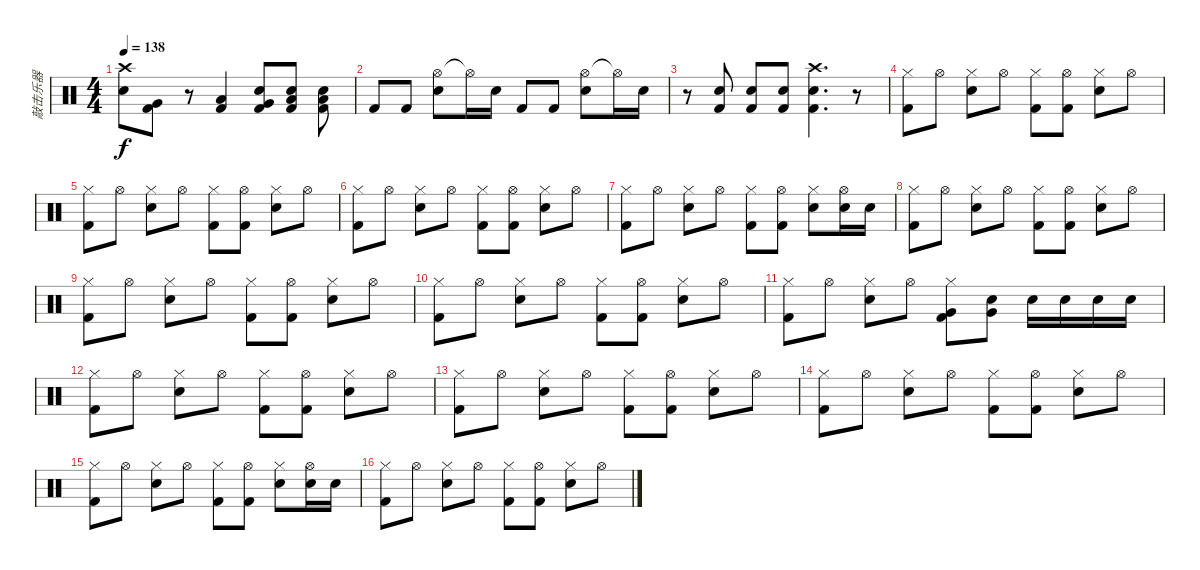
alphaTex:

\track ("敲击乐器" "敲击乐器") {instrument percussion}
\staff {score}
\articulation defaults
\ts (4 4)
\tempo 138
\clef neutral
\ks c
("Crash high (hit)" "Electric Snare (hit)").8{dy f} ("Very Low Tom (hit)" "Kick (hit) 2").8 r.8 ("Low Floor Tom (hit)" "Kick (hit) 2").4{beam split} ("Electric Snare (hit)" "Very Low Tom (hit)" "Kick (hit) 2").8{beam merge} ("Electric Snare (hit)" "Low Floor Tom (hit)" "Kick (hit) 2").8{beam split} ("Electric Snare (hit)" "Low Floor Tom (hit)" "Kick (hit) 2").8 |
"Kick (hit) 2".8 "Kick (hit) 2".8 ("Hi-Hat (open)" "Electric Snare (hit)").8 "Hi-Hat (open)"{t}.16 "Electric Snare (hit)".16 "Kick (hit) 2".8 "Kick (hit) 2".8 ("Hi-Hat (open)" "Electric Snare (hit)").8 "Hi-Hat (open)"{t}.16 "Electric Snare (hit)".16 |
r.8 ("Electric Snare (hit)" "Kick (hit) 2").8 ("Electric Snare (hit)" "Kick (hit) 2").8 ("Electric Snare (hit)" "Kick (hit) 2").8 ("Crash high (hit)" "Electric Snare (hit)" "Kick (hit) 2").4{d} r.8 |
("Hi-Hat (closed)" "Kick (hit) 2").8 "Hi-Hat (open)".8 ("Hi-Hat (closed)" "Electric Snare (hit)").8 "Hi-Hat (open)".8 ("Hi-Hat (closed)" "Kick (hit) 2").8 ("Hi-Hat (open)" "Kick (hit) 2").8 ("Hi-Hat (closed)" "Electric Snare (hit)").8 "Hi-Hat (open)".8 |
("Hi-Hat (closed)" "Kick (hit) 2").8 "Hi-Hat (open)".8 ("Hi-Hat (closed)" "Electric Snare (hit)").8 "Hi-Hat (open)".8 ("Hi-Hat (closed)" "Kick (hit) 2").8 ("Hi-Hat (open)" "Kick (hit) 2").8 ("Hi-Hat (closed)" "Electric Snare (hit)").8 "Hi-Hat (open)".8 |
("Hi-Hat (closed)" "Kick (hit) 2").8 "Hi-Hat (open)".8 ("Hi-Hat (closed)" "Electric Snare (hit)").8 "Hi-Hat (open)".8 ("Hi-Hat (closed)" "Kick (hit) 2").8 ("Hi-Hat (open)" "Kick (hit) 2").8 ("Hi-Hat (closed)" "Electric Snare (hit)").8 "Hi-Hat (open)".8 |
("Hi-Hat (closed)" "Kick (hit) 2").8 "Hi-Hat (open)".8 ("Hi-Hat (closed)" "Electric Snare (hit)").8 "Hi-Hat (open)".8 ("Hi-Hat (closed)" "Kick (hit) 2").8 ("Hi-Hat (open)" "Kick (hit) 2").8 ("Hi-Hat (closed)" "Electric Snare (hit)").8 ("Hi-Hat (open)" "Electric Snare (hit)").16 "Electric Snare (hit)".16 |
("Hi-Hat (closed)" "Kick (hit) 2").8 "Hi-Hat (open)".8 ("Hi-Hat (closed)" "Electric Snare (hit)").8 "Hi-Hat (open)".8 ("Hi-Hat (closed)" "Kick (hit) 2").8 ("Hi-Hat (open)" "Kick (hit) 2").8 ("Hi-Hat (closed)" "Electric Snare (hit)").8 "Hi-Hat (open)".8 |
("Hi-Hat (closed)" "Kick (hit) 2").8 "Hi-Hat (open)".8 ("Hi-Hat (closed)" "Electric Snare (hit)").8 "Hi-Hat (open)".8 ("Hi-Hat (closed)" "Kick (hit) 2").8 ("Hi-Hat (open)" "Kick (hit) 2").8 ("Hi-Hat (closed)" "Electric Snare (hit)").8 "Hi-Hat (open)".8 |
("Hi-Hat (closed)" "Kick (hit) 2").8 "Hi-Hat (open)".8 ("Hi-Hat (closed)" "Electric Snare (hit)").8 "Hi-Hat (open)".8 ("Hi-Hat (closed)" "Kick (hit) 2").8 ("Hi-Hat (open)" "Kick (hit) 2").8 ("Hi-Hat (closed)" "Electric Snare (hit)").8 "Hi-Hat (open)".8 |
("Hi-Hat (closed)" "Kick (hit) 2").8 "Hi-Hat (open)".8 ("Hi-Hat (closed)" "Electric Snare (hit)").8 "Hi-Hat (open)".8 ("Hi-Hat (closed)" "Very Low Tom (hit)" "Kick (hit) 2").8 ("Very Low Tom (hit)" "Electric Snare (hit)").8 "Electric Snare (hit)".16 "Electric Snare (hit)".16 "Electric Snare (hit)".16 "Electric Snare (hit)".16 |
("Hi-Hat (closed)" "Kick (hit) 2").8 "Hi-Hat (open)".8 ("Hi-Hat (closed)" "Electric Snare (hit)").8 "Hi-Hat (open)".8 ("Hi-Hat (closed)" "Kick (hit) 2").8 ("Hi-Hat (open)" "Kick (hit) 2").8 ("Hi-Hat (closed)" "Electric Snare (hit)").8 "Hi-Hat (open)".8 |
("Hi-Hat (closed)" "Kick (hit) 2").8 "Hi-Hat (open)".8 ("Hi-Hat (closed)" "Electric Snare (hit)").8 "Hi-Hat (open)".8 ("Hi-Hat (closed)" "Kick (hit) 2").8 ("Hi-Hat (open)" "Kick (hit) 2").8 ("Hi-Hat (closed)" "Electric Snare (hit)").8 "Hi-Hat (open)".8 |
("Hi-Hat (closed)" "Kick (hit) 2").8 "Hi-Hat (open)".8 ("Hi-Hat (closed)" "Electric Snare (hit)").8 "Hi-Hat (open)".8 ("Hi-Hat (closed)" "Kick (hit) 2").8 ("Hi-Hat (open)" "Kick (hit) 2").8 ("Hi-Hat (closed)" "Electric Snare (hit)").8 "Hi-Hat (open)".8 |
("Hi-Hat (closed)" "Kick (hit) 2").8 "Hi-Hat (open)".8 ("Hi-Hat (closed)" "Electric Snare (hit)").8 "Hi-Hat (open)".8 ("Hi-Hat (closed)" "Kick (hit) 2").8 ("Hi-Hat (open)" "Kick (hit) 2").8 ("Hi-Hat (closed)" "Electric Snare (hit)").8 ("Hi-Hat (open)" "Electric Snare (hit)").16 "Electric Snare (hit)".16 |
("Hi-Hat (closed)" "Kick (hit) 2").8 "Hi-Hat (open)".8 ("Hi-Hat (closed)" "Electric Snare (hit)").8 "Hi-Hat (open)".8 ("Hi-Hat (closed)" "Kick (hit) 2").8 ("Hi-Hat (open)" "Kick (hit) 2").8 ("Hi-Hat (closed)" "Electric Snare (hit)").8 "Hi-Hat (open)".8
